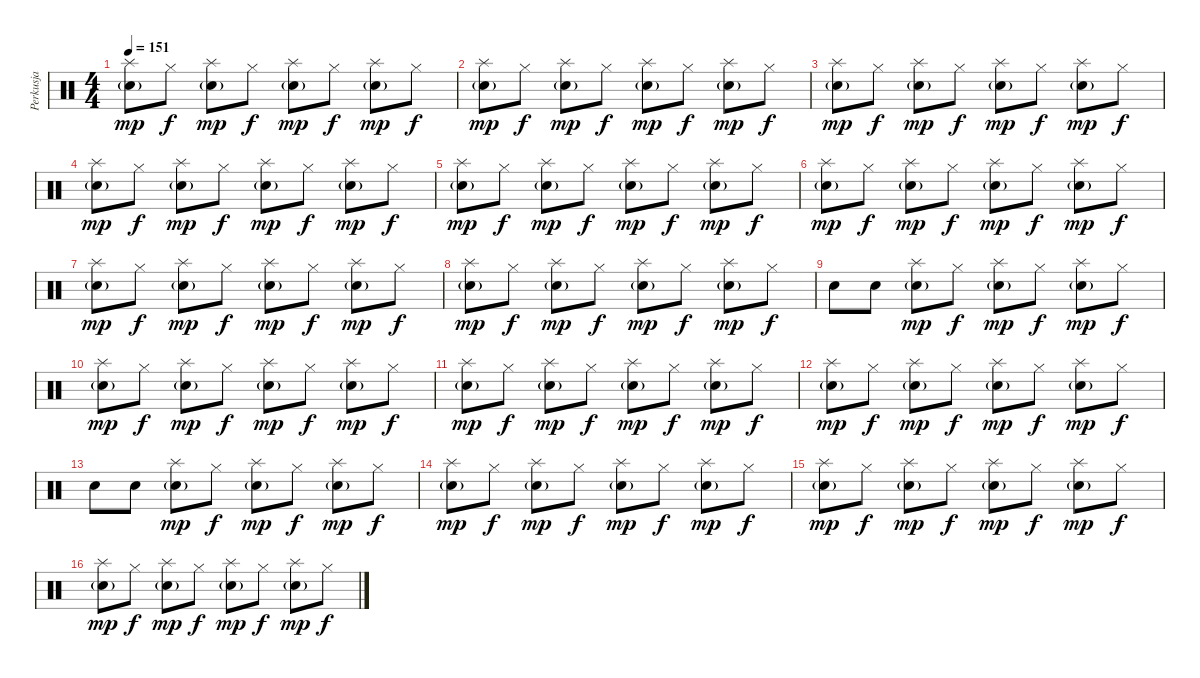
\track ("Perkusja" "Perkusja") {instrument percussion}
\staff {score}
\articulation defaults
\ts (4 4)
\tempo 151
\clef neutral
\ks c
("Splash (hit)" "Snare (hit) 2"{g}).8{dy mp} "Hi-Hat (closed)".8{dy f} ("Splash (hit)" "Snare (hit) 2"{g}).8{dy mp} "Hi-Hat (closed)".8{dy f} ("Splash (hit)" "Snare (hit) 2"{g}).8{dy mp} "Hi-Hat (closed)".8{dy f} ("Splash (hit)" "Snare (hit) 2"{g}).8{dy mp} "Hi-Hat (closed)".8{dy f} |
("Splash (hit)" "Snare (hit) 2"{g}).8{dy mp} "Hi-Hat (closed)".8{dy f} ("Splash (hit)" "Snare (hit) 2"{g}).8{dy mp} "Hi-Hat (closed)".8{dy f} ("Splash (hit)" "Snare (hit) 2"{g}).8{dy mp} "Hi-Hat (closed)".8{dy f} ("Splash (hit)" "Snare (hit) 2"{g}).8{dy mp} "Hi-Hat (closed)".8{dy f} |
("Splash (hit)" "Snare (hit) 2"{g}).8{dy mp} "Hi-Hat (closed)".8{dy f} ("Splash (hit)" "Snare (hit) 2"{g}).8{dy mp} "Hi-Hat (closed)".8{dy f} ("Splash (hit)" "Snare (hit) 2"{g}).8{dy mp} "Hi-Hat (closed)".8{dy f} ("Splash (hit)" "Snare (hit) 2"{g}).8{dy mp} "Hi-Hat (closed)".8{dy f} |
("Splash (hit)" "Snare (hit) 2"{g}).8{dy mp} "Hi-Hat (closed)".8{dy f} ("Splash (hit)" "Snare (hit) 2"{g}).8{dy mp} "Hi-Hat (closed)".8{dy f} ("Splash (hit)" "Snare (hit) 2"{g}).8{dy mp} "Hi-Hat (closed)".8{dy f} ("Splash (hit)" "Snare (hit) 2"{g}).8{dy mp} "Hi-Hat (closed)".8{dy f} |
("Splash (hit)" "Snare (hit) 2"{g}).8{dy mp} "Hi-Hat (closed)".8{dy f} ("Splash (hit)" "Snare (hit) 2"{g}).8{dy mp} "Hi-Hat (closed)".8{dy f} ("Splash (hit)" "Snare (hit) 2"{g}).8{dy mp} "Hi-Hat (closed)".8{dy f} ("Splash (hit)" "Snare (hit) 2"{g}).8{dy mp} "Hi-Hat (closed)".8{dy f} |
("Splash (hit)" "Snare (hit) 2"{g}).8{dy mp} "Hi-Hat (closed)".8{dy f} ("Splash (hit)" "Snare (hit) 2"{g}).8{dy mp} "Hi-Hat (closed)".8{dy f} ("Splash (hit)" "Snare (hit) 2"{g}).8{dy mp} "Hi-Hat (closed)".8{dy f} ("Splash (hit)" "Snare (hit) 2"{g}).8{dy mp} "Hi-Hat (closed)".8{dy f} |
("Splash (hit)" "Snare (hit) 2"{g}).8{dy mp} "Hi-Hat (closed)".8{dy f} ("Splash (hit)" "Snare (hit) 2"{g}).8{dy mp} "Hi-Hat (closed)".8{dy f} ("Splash (hit)" "Snare (hit) 2"{g}).8{dy mp} "Hi-Hat (closed)".8{dy f} ("Splash (hit)" "Snare (hit) 2"{g}).8{dy mp} "Hi-Hat (closed)".8{dy f} |
("Splash (hit)" "Snare (hit) 2"{g}).8{dy mp} "Hi-Hat (closed)".8{dy f} ("Splash (hit)" "Snare (hit) 2"{g}).8{dy mp} "Hi-Hat (closed)".8{dy f} ("Splash (hit)" "Snare (hit) 2"{g}).8{dy mp} "Hi-Hat (closed)".8{dy f} ("Splash (hit)" "Snare (hit) 2"{g}).8{dy mp} "Hi-Hat (closed)".8{dy f} |
"Snare (hit) 2".8 "Snare (hit) 2".8 ("Splash (hit)" "Snare (hit) 2"{g}).8{dy mp} "Hi-Hat (closed)".8{dy f} ("Splash (hit)" "Snare (hit) 2"{g}).8{dy mp} "Hi-Hat (closed)".8{dy f} ("Splash (hit)" "Snare (hit) 2"{g}).8{dy mp} "Hi-Hat (closed)".8{dy f} |
("Splash (hit)" "Snare (hit) 2"{g}).8{dy mp} "Hi-Hat (closed)".8{dy f} ("Splash (hit)" "Snare (hit) 2"{g}).8{dy mp} "Hi-Hat (closed)".8{dy f} ("Splash (hit)" "Snare (hit) 2"{g}).8{dy mp} "Hi-Hat (closed)".8{dy f} ("Splash (hit)" "Snare (hit) 2"{g}).8{dy mp} "Hi-Hat (closed)".8{dy f} |
("Splash (hit)" "Snare (hit) 2"{g}).8{dy mp} "Hi-Hat (closed)".8{dy f} ("Splash (hit)" "Snare (hit) 2"{g}).8{dy mp} "Hi-Hat (closed)".8{dy f} ("Splash (hit)" "Snare (hit) 2"{g}).8{dy mp} "Hi-Hat (closed)".8{dy f} ("Splash (hit)" "Snare (hit) 2"{g}).8{dy mp} "Hi-Hat (closed)".8{dy f} |
("Splash (hit)" "Snare (hit) 2"{g}).8{dy mp} "Hi-Hat (closed)".8{dy f} ("Splash (hit)" "Snare (hit) 2"{g}).8{dy mp} "Hi-Hat (closed)".8{dy f} ("Splash (hit)" "Snare (hit) 2"{g}).8{dy mp} "Hi-Hat (closed)".8{dy f} ("Splash (hit)" "Snare (hit) 2"{g}).8{dy mp} "Hi-Hat (closed)".8{dy f} |
"Snare (hit) 2".8 "Snare (hit) 2".8 ("Splash (hit)" "Snare (hit) 2"{g}).8{dy mp} "Hi-Hat (closed)".8{dy f} ("Splash (hit)" "Snare (hit) 2"{g}).8{dy mp} "Hi-Hat (closed)".8{dy f} ("Splash (hit)" "Snare (hit) 2"{g}).8{dy mp} "Hi-Hat (closed)".8{dy f} |
("Splash (hit)" "Snare (hit) 2"{g}).8{dy mp} "Hi-Hat (closed)".8{dy f} ("Splash (hit)" "Snare (hit) 2"{g}).8{dy mp} "Hi-Hat (closed)".8{dy f} ("Splash (hit)" "Snare (hit) 2"{g}).8{dy mp} "Hi-Hat (closed)".8{dy f} ("Splash (hit)" "Snare (hit) 2"{g}).8{dy mp} "Hi-Hat (closed)".8{dy f} |
("Splash (hit)" "Snare (hit) 2"{g}).8{dy mp} "Hi-Hat (closed)".8{dy f} ("Splash (hit)" "Snare (hit) 2"{g}).8{dy mp} "Hi-Hat (closed)".8{dy f} ("Splash (hit)" "Snare (hit) 2"{g}).8{dy mp} "Hi-Hat (closed)".8{dy f} ("Splash (hit)" "Snare (hit) 2"{g}).8{dy mp} "Hi-Hat (closed)".8{dy f} |
("Splash (hit)" "Snare (hit) 2"{g}).8{dy mp} "Hi-Hat (closed)".8{dy f} ("Splash (hit)" "Snare (hit) 2"{g}).8{dy mp} "Hi-Hat (closed)".8{dy f} ("Splash (hit)" "Snare (hit) 2"{g}).8{dy mp} "Hi-Hat (closed)".8{dy f} ("Splash (hit)" "Snare (hit) 2"{g}).8{dy mp} "Hi-Hat (closed)".8{dy f}
